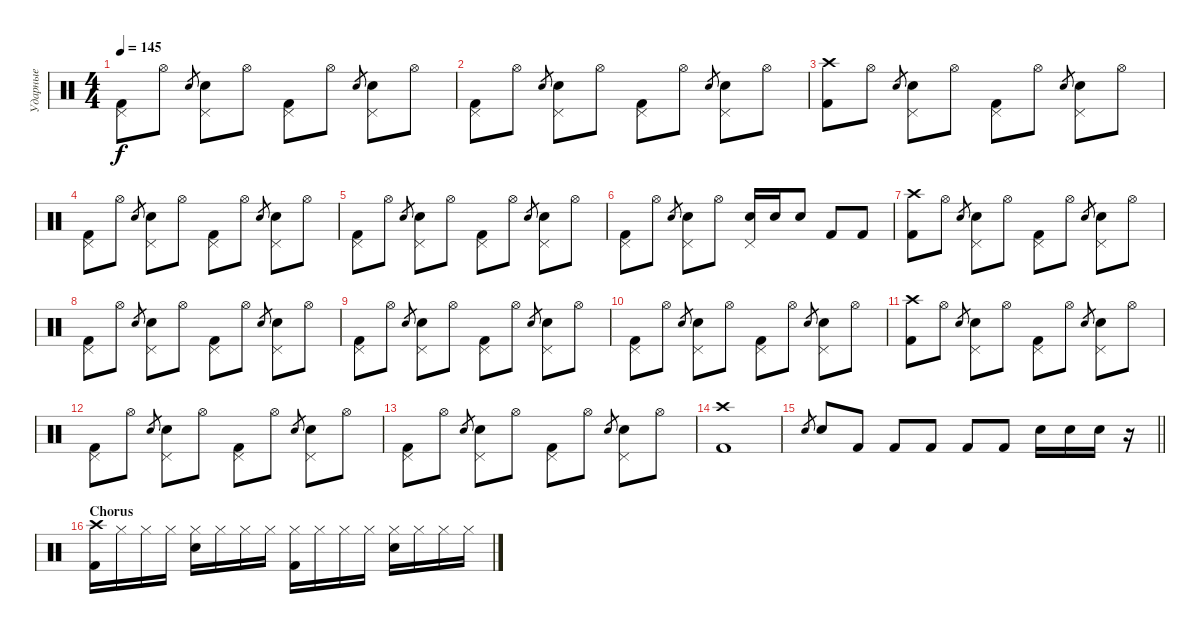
\track ("Ударные" "Ударные") {instrument percussion}
\staff {score}
\articulation defaults
\ts (4 4)
\tempo 145
\clef neutral
\ks c
("Pedal Hi-Hat (hit)" "Kick (hit) 2").8{dy f} "Hi-Hat (open)".8 "Electric Snare (hit)".8{gr} ("Pedal Hi-Hat (hit)" "Electric Snare (hit)").8 "Hi-Hat (open)".8 ("Pedal Hi-Hat (hit)" "Kick (hit) 2").8 "Hi-Hat (open)".8 "Electric Snare (hit)".8{gr} ("Pedal Hi-Hat (hit)" "Electric Snare (hit)").8 "Hi-Hat (open)".8 |
("Pedal Hi-Hat (hit)" "Kick (hit) 2").8 "Hi-Hat (open)".8 "Electric Snare (hit)".8{gr} ("Pedal Hi-Hat (hit)" "Electric Snare (hit)").8 "Hi-Hat (open)".8 ("Pedal Hi-Hat (hit)" "Kick (hit) 2").8 "Hi-Hat (open)".8 "Electric Snare (hit)".8{gr} ("Pedal Hi-Hat (hit)" "Electric Snare (hit)").8 "Hi-Hat (open)".8 |
("Crash high (hit)" "Kick (hit) 2").8 "Hi-Hat (open)".8 "Electric Snare (hit)".8{gr} ("Pedal Hi-Hat (hit)" "Electric Snare (hit)").8 "Hi-Hat (open)".8 ("Pedal Hi-Hat (hit)" "Kick (hit) 2").8 "Hi-Hat (open)".8 "Electric Snare (hit)".8{gr} ("Pedal Hi-Hat (hit)" "Electric Snare (hit)").8 "Hi-Hat (open)".8 |
("Pedal Hi-Hat (hit)" "Kick (hit) 2").8 "Hi-Hat (open)".8 "Electric Snare (hit)".8{gr} ("Pedal Hi-Hat (hit)" "Electric Snare (hit)").8 "Hi-Hat (open)".8 ("Pedal Hi-Hat (hit)" "Kick (hit) 2").8 "Hi-Hat (open)".8 "Electric Snare (hit)".8{gr} ("Pedal Hi-Hat (hit)" "Electric Snare (hit)").8 "Hi-Hat (open)".8 |
("Pedal Hi-Hat (hit)" "Kick (hit) 2").8 "Hi-Hat (open)".8 "Electric Snare (hit)".8{gr} ("Pedal Hi-Hat (hit)" "Electric Snare (hit)").8 "Hi-Hat (open)".8 ("Pedal Hi-Hat (hit)" "Kick (hit) 2").8 "Hi-Hat (open)".8 "Electric Snare (hit)".8{gr} ("Pedal Hi-Hat (hit)" "Electric Snare (hit)").8 "Hi-Hat (open)".8 |
("Pedal Hi-Hat (hit)" "Kick (hit) 2").8 "Hi-Hat (open)".8 "Electric Snare (hit)".8{gr} ("Pedal Hi-Hat (hit)" "Electric Snare (hit)").8 "Hi-Hat (open)".8 ("Pedal Hi-Hat (hit)" "Electric Snare (hit)").16 "Electric Snare (hit)".16 "Electric Snare (hit)".8 "Kick (hit) 2".8 "Kick (hit) 2".8 |
("Crash high (hit)" "Kick (hit) 2").8 "Hi-Hat (open)".8 "Electric Snare (hit)".8{gr} ("Pedal Hi-Hat (hit)" "Electric Snare (hit)").8 "Hi-Hat (open)".8 ("Pedal Hi-Hat (hit)" "Kick (hit) 2").8 "Hi-Hat (open)".8 "Electric Snare (hit)".8{gr} ("Pedal Hi-Hat (hit)" "Electric Snare (hit)").8 "Hi-Hat (open)".8 |
("Pedal Hi-Hat (hit)" "Kick (hit) 2").8 "Hi-Hat (open)".8 "Electric Snare (hit)".8{gr} ("Pedal Hi-Hat (hit)" "Electric Snare (hit)").8 "Hi-Hat (open)".8 ("Pedal Hi-Hat (hit)" "Kick (hit) 2").8 "Hi-Hat (open)".8 "Electric Snare (hit)".8{gr} ("Pedal Hi-Hat (hit)" "Electric Snare (hit)").8 "Hi-Hat (open)".8 |
("Pedal Hi-Hat (hit)" "Kick (hit) 2").8 "Hi-Hat (open)".8 "Electric Snare (hit)".8{gr} ("Pedal Hi-Hat (hit)" "Electric Snare (hit)").8 "Hi-Hat (open)".8 ("Pedal Hi-Hat (hit)" "Kick (hit) 2").8 "Hi-Hat (open)".8 "Electric Snare (hit)".8{gr} ("Pedal Hi-Hat (hit)" "Electric Snare (hit)").8 "Hi-Hat (open)".8 |
("Pedal Hi-Hat (hit)" "Kick (hit) 2").8 "Hi-Hat (open)".8 "Electric Snare (hit)".8{gr} ("Pedal Hi-Hat (hit)" "Electric Snare (hit)").8 "Hi-Hat (open)".8 ("Pedal Hi-Hat (hit)" "Kick (hit) 2").8 "Hi-Hat (open)".8 "Electric Snare (hit)".8{gr} ("Pedal Hi-Hat (hit)" "Electric Snare (hit)").8 "Hi-Hat (open)".8 |
("Crash high (hit)" "Kick (hit) 2").8 "Hi-Hat (open)".8 "Electric Snare (hit)".8{gr} ("Pedal Hi-Hat (hit)" "Electric Snare (hit)").8 "Hi-Hat (open)".8 ("Pedal Hi-Hat (hit)" "Kick (hit) 2").8 "Hi-Hat (open)".8 "Electric Snare (hit)".8{gr} ("Pedal Hi-Hat (hit)" "Electric Snare (hit)").8 "Hi-Hat (open)".8 |
("Pedal Hi-Hat (hit)" "Kick (hit) 2").8 "Hi-Hat (open)".8 "Electric Snare (hit)".8{gr} ("Pedal Hi-Hat (hit)" "Electric Snare (hit)").8 "Hi-Hat (open)".8 ("Pedal Hi-Hat (hit)" "Kick (hit) 2").8 "Hi-Hat (open)".8 "Electric Snare (hit)".8{gr} ("Pedal Hi-Hat (hit)" "Electric Snare (hit)").8 "Hi-Hat (open)".8 |
("Pedal Hi-Hat (hit)" "Kick (hit) 2").8 "Hi-Hat (open)".8 "Electric Snare (hit)".8{gr} ("Pedal Hi-Hat (hit)" "Electric Snare (hit)").8 "Hi-Hat (open)".8 ("Pedal Hi-Hat (hit)" "Kick (hit) 2").8 "Hi-Hat (open)".8 "Electric Snare (hit)".8{gr} ("Pedal Hi-Hat (hit)" "Electric Snare (hit)").8 "Hi-Hat (open)".8 |
("Crash high (hit)" "Kick (hit) 2").1 |
\barLineRight lightlight "Electric Snare (hit)".8{gr} "Electric Snare (hit)".8 "Kick (hit) 2".8 "Kick (hit) 2".8 "Kick (hit) 2".8 "Kick (hit) 2".8 "Kick (hit) 2".8 "Electric Snare (hit)".16 "Electric Snare (hit)".16 "Electric Snare (hit)".16
r.16 |
\section ("" "Chorus")
("Crash high (hit)" "Kick (hit) 2").16 "Hi-Hat (closed)".16 "Hi-Hat (closed)".16 "Hi-Hat (closed)".16 ("Hi-Hat (closed)" "Electric Snare (hit)").16 "Hi-Hat (closed)".16 "Hi-Hat (closed)".16 "Hi-Hat (closed)".16 ("Hi-Hat (closed)" "Kick (hit) 2").16 "Hi-Hat (closed)".16 "Hi-Hat (closed)".16 "Hi-Hat (closed)".16 ("Hi-Hat (closed)" "Electric Snare (hit)").16 "Hi-Hat (closed)".16 "Hi-Hat (closed)".16 "Hi-Hat (closed)".16
